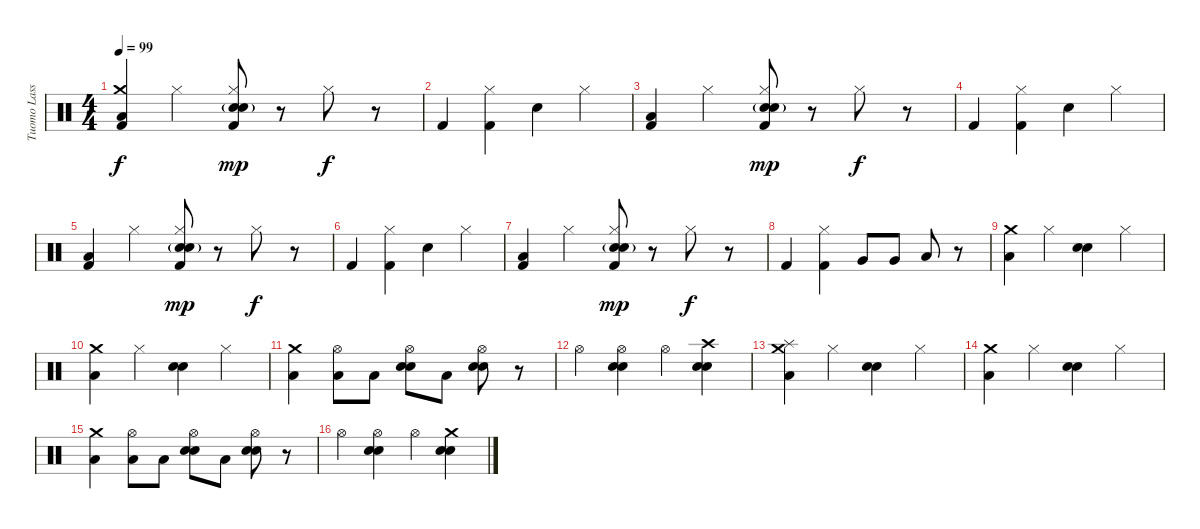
\track ("Tuomo Lassila" "Tuomo Lass") {instrument percussion}
\staff {score}
\articulation defaults
\ts (4 4)
\tempo 99
\clef neutral
\ks c
("Kick (hit) 2" "Crash medium (hit)" "Low Floor Tom (hit)").4{dy f} "Hi-Hat (closed)".4 ("Kick (hit) 2" "Electric Snare (hit)"{g} "Electric Snare (hit)"{g} "Hi-Hat (closed)").8{dy mp} r.8 "Hi-Hat (closed)".8{dy f} r.8 |
"Kick (hit) 2".4 ("Kick (hit) 2" "Hi-Hat (closed)").4 "Electric Snare (hit)".4 "Hi-Hat (closed)".4 |
("Kick (hit) 2" "Low Floor Tom (hit)").4 "Hi-Hat (closed)".4 ("Kick (hit) 2" "Electric Snare (hit)"{g} "Electric Snare (hit)"{g} "Hi-Hat (closed)").8{dy mp} r.8 "Hi-Hat (closed)".8{dy f} r.8 |
"Kick (hit) 2".4 ("Kick (hit) 2" "Hi-Hat (closed)").4 "Electric Snare (hit)".4 "Hi-Hat (closed)".4 |
("Kick (hit) 2" "Low Floor Tom (hit)").4 "Hi-Hat (closed)".4 ("Kick (hit) 2" "Electric Snare (hit)"{g} "Electric Snare (hit)"{g} "Hi-Hat (closed)").8{dy mp} r.8 "Hi-Hat (closed)".8{dy f} r.8 |
"Kick (hit) 2".4 ("Kick (hit) 2" "Hi-Hat (closed)").4 "Electric Snare (hit)".4 "Hi-Hat (closed)".4 |
("Kick (hit) 2" "Low Floor Tom (hit)").4 "Hi-Hat (closed)".4 ("Kick (hit) 2" "Electric Snare (hit)"{g} "Electric Snare (hit)"{g} "Hi-Hat (closed)").8{dy mp} r.8 "Hi-Hat (closed)".8{dy f} r.8 |
"Kick (hit) 2".4 ("Kick (hit) 2" "Hi-Hat (closed)").4 "Very Low Tom (hit)".8 "Very Low Tom (hit)".8 "Low Floor Tom (hit)".8 r.8 |
("Crash medium (hit)" "Low Floor Tom (hit)").4 "Hi-Hat (closed)".4 ("Electric Snare (hit)" "Snare (hit) 2").4 "Hi-Hat (closed)".4 |
("Crash medium (hit)" "Low Floor Tom (hit)").4 "Hi-Hat (closed)".4 ("Electric Snare (hit)" "Snare (hit) 2").4 "Hi-Hat (closed)".4 |
("Crash medium (hit)" "Low Floor Tom (hit)").4 ("Low Floor Tom (hit)" "Hi-Hat (open)").8 "Low Floor Tom (hit)".8 ("Electric Snare (hit)" "Snare (hit) 2" "Hi-Hat (open)").8 "Low Floor Tom (hit)".8 ("Electric Snare (hit)" "Snare (hit) 2" "Hi-Hat (open)").8 r.8 |
"Hi-Hat (open)".4 ("Electric Snare (hit)" "Hi-Hat (open)" "Snare (hit) 2").4 "Hi-Hat (open)".4 ("Electric Snare (hit)" "Crash high (hit)" "Snare (hit) 2").4 |
("Splash (hit)" "Low Floor Tom (hit)" "Crash medium (hit)").4 "Hi-Hat (closed)".4 ("Electric Snare (hit)" "Snare (hit) 2").4 "Hi-Hat (closed)".4 |
("Crash medium (hit)" "Low Floor Tom (hit)").4 "Hi-Hat (closed)".4 ("Electric Snare (hit)" "Snare (hit) 2").4 "Hi-Hat (closed)".4 |
("Crash medium (hit)" "Low Floor Tom (hit)").4 ("Low Floor Tom (hit)" "Hi-Hat (open)").8 "Low Floor Tom (hit)".8 ("Electric Snare (hit)" "Snare (hit) 2" "Hi-Hat (open)").8 "Low Floor Tom (hit)".8 ("Electric Snare (hit)" "Snare (hit) 2" "Hi-Hat (open)").8 r.8 |
"Hi-Hat (open)".4 ("Electric Snare (hit)" "Hi-Hat (open)" "Snare (hit) 2").4 "Hi-Hat (open)".4 ("Electric Snare (hit)" "Crash medium (hit)" "Snare (hit) 2").4
